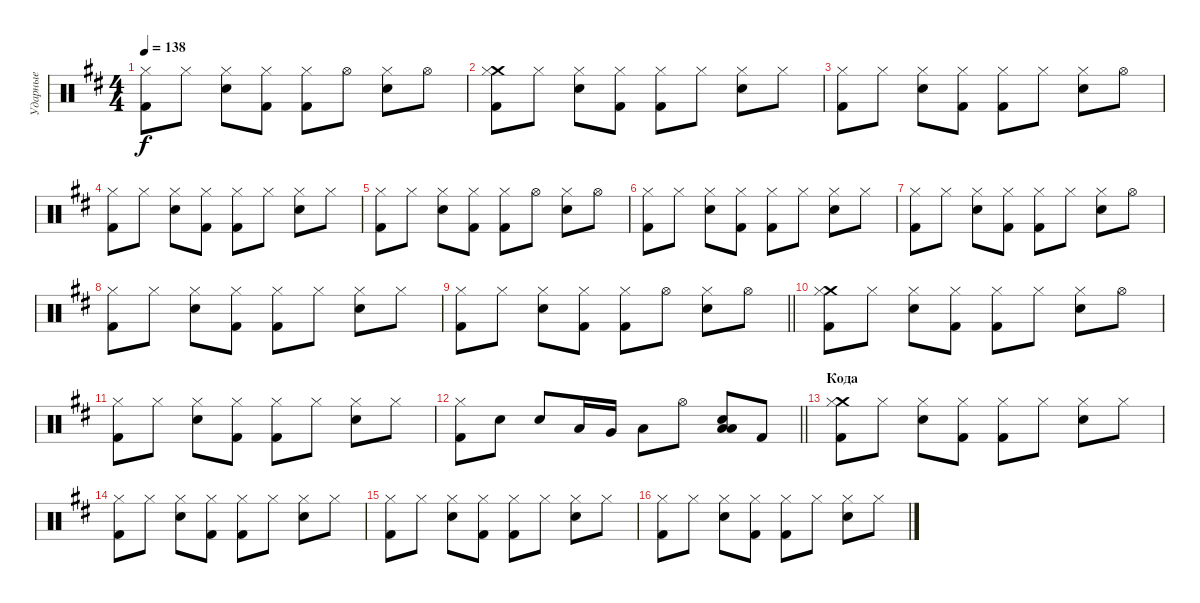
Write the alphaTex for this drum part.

\track ("Ударные" "Ударные") {instrument percussion}
\staff {score}
\articulation defaults
\ts (4 4)
\tempo 138
\clef neutral
\ks bminor
("Kick (hit) 2" "Hi-Hat (closed)").8{dy f} "Hi-Hat (closed)".8 ("Electric Snare (hit)" "Hi-Hat (closed)").8 ("Kick (hit) 2" "Hi-Hat (closed)").8 ("Kick (hit) 2" "Hi-Hat (closed)").8 "Hi-Hat (open)".8 ("Electric Snare (hit)" "Hi-Hat (closed)").8 "Hi-Hat (open)".8 |
("Crash medium (hit)" "Kick (hit) 2" "Hi-Hat (closed)").8 "Hi-Hat (closed)".8 ("Electric Snare (hit)" "Hi-Hat (closed)").8 ("Kick (hit) 2" "Hi-Hat (closed)").8 ("Kick (hit) 2" "Hi-Hat (closed)").8 "Hi-Hat (closed)".8 ("Electric Snare (hit)" "Hi-Hat (closed)").8 "Hi-Hat (closed)".8 |
("Kick (hit) 2" "Hi-Hat (closed)").8 "Hi-Hat (closed)".8 ("Electric Snare (hit)" "Hi-Hat (closed)").8 ("Kick (hit) 2" "Hi-Hat (closed)").8 ("Kick (hit) 2" "Hi-Hat (closed)").8 "Hi-Hat (closed)".8 ("Electric Snare (hit)" "Hi-Hat (closed)").8 "Hi-Hat (open)".8 |
("Kick (hit) 2" "Hi-Hat (closed)").8 "Hi-Hat (closed)".8 ("Electric Snare (hit)" "Hi-Hat (closed)").8 ("Kick (hit) 2" "Hi-Hat (closed)").8 ("Kick (hit) 2" "Hi-Hat (closed)").8 "Hi-Hat (closed)".8 ("Electric Snare (hit)" "Hi-Hat (closed)").8 "Hi-Hat (closed)".8 |
("Kick (hit) 2" "Hi-Hat (closed)").8 "Hi-Hat (closed)".8 ("Electric Snare (hit)" "Hi-Hat (closed)").8 ("Kick (hit) 2" "Hi-Hat (closed)").8 ("Kick (hit) 2" "Hi-Hat (closed)").8 "Hi-Hat (open)".8 ("Electric Snare (hit)" "Hi-Hat (closed)").8 "Hi-Hat (open)".8 |
("Kick (hit) 2" "Hi-Hat (closed)").8 "Hi-Hat (closed)".8 ("Electric Snare (hit)" "Hi-Hat (closed)").8 ("Kick (hit) 2" "Hi-Hat (closed)").8 ("Kick (hit) 2" "Hi-Hat (closed)").8 "Hi-Hat (closed)".8 ("Electric Snare (hit)" "Hi-Hat (closed)").8 "Hi-Hat (closed)".8 |
("Kick (hit) 2" "Hi-Hat (closed)").8 "Hi-Hat (closed)".8 ("Electric Snare (hit)" "Hi-Hat (closed)").8 ("Kick (hit) 2" "Hi-Hat (closed)").8 ("Kick (hit) 2" "Hi-Hat (closed)").8 "Hi-Hat (closed)".8 ("Electric Snare (hit)" "Hi-Hat (closed)").8 "Hi-Hat (open)".8 |
("Kick (hit) 2" "Hi-Hat (closed)").8 "Hi-Hat (closed)".8 ("Electric Snare (hit)" "Hi-Hat (closed)").8 ("Kick (hit) 2" "Hi-Hat (closed)").8 ("Kick (hit) 2" "Hi-Hat (closed)").8 "Hi-Hat (closed)".8 ("Electric Snare (hit)" "Hi-Hat (closed)").8 "Hi-Hat (closed)".8 |
\barLineRight lightlight
("Kick (hit) 2" "Hi-Hat (closed)").8 "Hi-Hat (closed)".8 ("Electric Snare (hit)" "Hi-Hat (closed)").8 ("Kick (hit) 2" "Hi-Hat (closed)").8 ("Kick (hit) 2" "Hi-Hat (closed)").8 "Hi-Hat (open)".8 ("Electric Snare (hit)" "Hi-Hat (closed)").8 "Hi-Hat (open)".8 |
\section ("" "")
("Crash medium (hit)" "Kick (hit) 2" "Hi-Hat (closed)").8 "Hi-Hat (closed)".8 ("Electric Snare (hit)" "Hi-Hat (closed)").8 ("Kick (hit) 2" "Hi-Hat (closed)").8 ("Kick (hit) 2" "Hi-Hat (closed)").8 "Hi-Hat (closed)".8 ("Electric Snare (hit)" "Hi-Hat (closed)").8 "Hi-Hat (open)".8 |
("Kick (hit) 2" "Hi-Hat (closed)").8 "Hi-Hat (closed)".8 ("Electric Snare (hit)" "Hi-Hat (closed)").8 ("Kick (hit) 2" "Hi-Hat (closed)").8 ("Kick (hit) 2" "Hi-Hat (closed)").8 "Hi-Hat (closed)".8 ("Electric Snare (hit)" "Hi-Hat (closed)").8 "Hi-Hat (closed)".8 |
\barLineRight lightlight
("Hi-Hat (closed)" "Kick (hit) 2").8 "Electric Snare (hit)".8 "Electric Snare (hit)".8 "Low Tom (hit)".16 "Very Low Tom (hit)".16 "Low Floor Tom (hit)".8 "Hi-Hat (open)".8 ("Low Floor Tom (hit)" "Electric Snare (hit)" "Low Tom (hit)").8 "Kick (hit) 2".8 |
\section ("" "Кода")
("Crash medium (hit)" "Kick (hit) 2" "Hi-Hat (closed)").8 "Hi-Hat (closed)".8 ("Electric Snare (hit)" "Hi-Hat (closed)").8 ("Kick (hit) 2" "Hi-Hat (closed)").8 ("Kick (hit) 2" "Hi-Hat (closed)").8 "Hi-Hat (closed)".8 ("Electric Snare (hit)" "Hi-Hat (closed)").8 "Hi-Hat (closed)".8 |
("Kick (hit) 2" "Hi-Hat (closed)").8 "Hi-Hat (closed)".8 ("Electric Snare (hit)" "Hi-Hat (closed)").8 ("Kick (hit) 2" "Hi-Hat (closed)").8 ("Kick (hit) 2" "Hi-Hat (closed)").8 "Hi-Hat (closed)".8 ("Electric Snare (hit)" "Hi-Hat (closed)").8 "Hi-Hat (closed)".8 |
("Kick (hit) 2" "Hi-Hat (closed)").8 "Hi-Hat (closed)".8 ("Electric Snare (hit)" "Hi-Hat (closed)").8 ("Kick (hit) 2" "Hi-Hat (closed)").8 ("Kick (hit) 2" "Hi-Hat (closed)").8 "Hi-Hat (closed)".8 ("Electric Snare (hit)" "Hi-Hat (closed)").8 "Hi-Hat (closed)".8 |
("Kick (hit) 2" "Hi-Hat (closed)").8 "Hi-Hat (closed)".8 ("Electric Snare (hit)" "Hi-Hat (closed)").8 ("Kick (hit) 2" "Hi-Hat (closed)").8 ("Kick (hit) 2" "Hi-Hat (closed)").8 "Hi-Hat (closed)".8 ("Electric Snare (hit)" "Hi-Hat (closed)").8 "Hi-Hat (closed)".8
